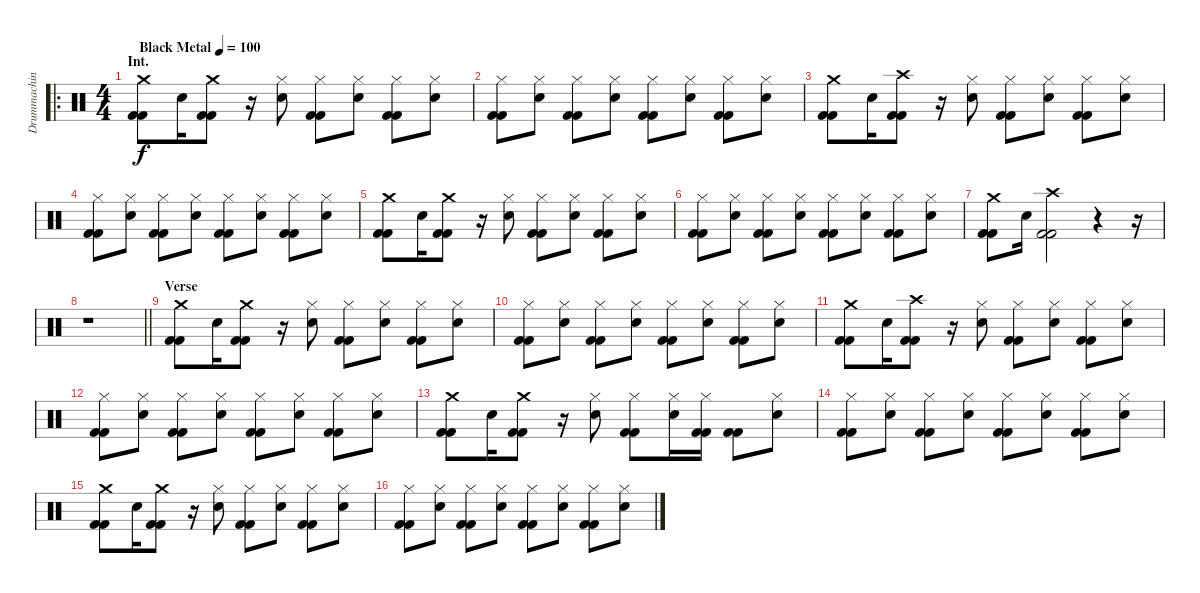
\track ("Drummachine" "Drummachin") {instrument percussion}
\staff {score}
\articulation defaults
\ro
\ts (4 4)
\section ("" "Int.")
\tempo (100 "Black Metal")
\clef neutral
\ks c
("Crash medium (hit)" "Kick (hit) 2" "Kick (hit) 2").8{dy f} "Snare (hit) 2".16 ("Crash medium (hit)" "Kick (hit) 2" "Kick (hit) 2").8 r.16 ("Hi-Hat (closed)" "Snare (hit) 2").8 ("Hi-Hat (closed)" "Kick (hit) 2" "Kick (hit) 2").8 ("Hi-Hat (closed)" "Snare (hit) 2").8 ("Hi-Hat (closed)" "Kick (hit) 2" "Kick (hit) 2").8 ("Hi-Hat (closed)" "Snare (hit) 2").8 |
("Hi-Hat (closed)" "Kick (hit) 2" "Kick (hit) 2").8 ("Hi-Hat (closed)" "Snare (hit) 2").8 ("Hi-Hat (closed)" "Kick (hit) 2" "Kick (hit) 2").8 ("Hi-Hat (closed)" "Snare (hit) 2").8 ("Hi-Hat (closed)" "Kick (hit) 2" "Kick (hit) 2").8 ("Hi-Hat (closed)" "Snare (hit) 2").8 ("Hi-Hat (closed)" "Kick (hit) 2" "Kick (hit) 2").8 ("Hi-Hat (closed)" "Snare (hit) 2").8 |
("Crash medium (hit)" "Kick (hit) 2" "Kick (hit) 2").8 "Snare (hit) 2".16 ("Crash high (hit)" "Kick (hit) 2" "Kick (hit) 2").8 r.16 ("Hi-Hat (closed)" "Snare (hit) 2").8 ("Hi-Hat (closed)" "Kick (hit) 2" "Kick (hit) 2").8 ("Hi-Hat (closed)" "Snare (hit) 2").8 ("Hi-Hat (closed)" "Kick (hit) 2" "Kick (hit) 2").8 ("Hi-Hat (closed)" "Snare (hit) 2").8 |
("Hi-Hat (closed)" "Kick (hit) 2" "Kick (hit) 2").8 ("Hi-Hat (closed)" "Snare (hit) 2").8 ("Hi-Hat (closed)" "Kick (hit) 2" "Kick (hit) 2").8 ("Hi-Hat (closed)" "Snare (hit) 2").8 ("Hi-Hat (closed)" "Kick (hit) 2" "Kick (hit) 2").8 ("Hi-Hat (closed)" "Snare (hit) 2").8 ("Hi-Hat (closed)" "Kick (hit) 2" "Kick (hit) 2").8 ("Hi-Hat (closed)" "Snare (hit) 2").8 |
("Crash medium (hit)" "Kick (hit) 2" "Kick (hit) 2").8 "Snare (hit) 2".16 ("Crash medium (hit)" "Kick (hit) 2" "Kick (hit) 2").8 r.16 ("Hi-Hat (closed)" "Snare (hit) 2").8 ("Hi-Hat (closed)" "Kick (hit) 2" "Kick (hit) 2").8 ("Hi-Hat (closed)" "Snare (hit) 2").8 ("Hi-Hat (closed)" "Kick (hit) 2" "Kick (hit) 2").8 ("Hi-Hat (closed)" "Snare (hit) 2").8 |
("Hi-Hat (closed)" "Kick (hit) 2" "Kick (hit) 2").8 ("Hi-Hat (closed)" "Snare (hit) 2").8 ("Hi-Hat (closed)" "Kick (hit) 2" "Kick (hit) 2").8 ("Hi-Hat (closed)" "Snare (hit) 2").8 ("Hi-Hat (closed)" "Kick (hit) 2" "Kick (hit) 2").8 ("Hi-Hat (closed)" "Snare (hit) 2").8 ("Hi-Hat (closed)" "Kick (hit) 2" "Kick (hit) 2").8 ("Hi-Hat (closed)" "Snare (hit) 2").8 |
("Crash medium (hit)" "Kick (hit) 2" "Kick (hit) 2").8 "Snare (hit) 2".16 ("Crash high (hit)" "Kick (hit) 2" "Kick (hit) 2").2 r.4 r.16 |
\barLineRight lightlight
r.1 |
\section ("" "Verse")
("Crash medium (hit)" "Kick (hit) 2" "Kick (hit) 2").8 "Snare (hit) 2".16 ("Crash medium (hit)" "Kick (hit) 2" "Kick (hit) 2").8 r.16 ("Hi-Hat (closed)" "Snare (hit) 2").8 ("Hi-Hat (closed)" "Kick (hit) 2" "Kick (hit) 2").8 ("Hi-Hat (closed)" "Snare (hit) 2").8 ("Hi-Hat (closed)" "Kick (hit) 2" "Kick (hit) 2").8 ("Hi-Hat (closed)" "Snare (hit) 2").8 |
("Hi-Hat (closed)" "Kick (hit) 2" "Kick (hit) 2").8 ("Hi-Hat (closed)" "Snare (hit) 2").8 ("Hi-Hat (closed)" "Kick (hit) 2" "Kick (hit) 2").8 ("Hi-Hat (closed)" "Snare (hit) 2").8 ("Hi-Hat (closed)" "Kick (hit) 2" "Kick (hit) 2").8 ("Hi-Hat (closed)" "Snare (hit) 2").8 ("Hi-Hat (closed)" "Kick (hit) 2" "Kick (hit) 2").8 ("Hi-Hat (closed)" "Snare (hit) 2").8 |
("Crash medium (hit)" "Kick (hit) 2" "Kick (hit) 2").8 "Snare (hit) 2".16 ("Crash high (hit)" "Kick (hit) 2" "Kick (hit) 2").8 r.16 ("Hi-Hat (closed)" "Snare (hit) 2").8 ("Hi-Hat (closed)" "Kick (hit) 2" "Kick (hit) 2").8 ("Hi-Hat (closed)" "Snare (hit) 2").8 ("Hi-Hat (closed)" "Kick (hit) 2" "Kick (hit) 2").8 ("Hi-Hat (closed)" "Snare (hit) 2").8 |
("Hi-Hat (closed)" "Kick (hit) 2" "Kick (hit) 2").8 ("Hi-Hat (closed)" "Snare (hit) 2").8 ("Hi-Hat (closed)" "Kick (hit) 2" "Kick (hit) 2").8 ("Hi-Hat (closed)" "Snare (hit) 2").8 ("Hi-Hat (closed)" "Kick (hit) 2" "Kick (hit) 2").8 ("Hi-Hat (closed)" "Snare (hit) 2").8 ("Hi-Hat (closed)" "Kick (hit) 2" "Kick (hit) 2").8 ("Hi-Hat (closed)" "Snare (hit) 2").8 |
("Crash medium (hit)" "Kick (hit) 2" "Kick (hit) 2").8 "Snare (hit) 2".16 ("Crash medium (hit)" "Kick (hit) 2" "Kick (hit) 2").8 r.16 ("Hi-Hat (closed)" "Snare (hit) 2").8 ("Hi-Hat (closed)" "Kick (hit) 2" "Kick (hit) 2").8 ("Hi-Hat (closed)" "Snare (hit) 2").16 ("Hi-Hat (closed)" "Kick (hit) 2" "Kick (hit) 2").16 ("Kick (hit) 2" "Kick (hit) 2").8 ("Hi-Hat (closed)" "Snare (hit) 2").8 |
("Hi-Hat (closed)" "Kick (hit) 2" "Kick (hit) 2").8 ("Hi-Hat (closed)" "Snare (hit) 2").8 ("Hi-Hat (closed)" "Kick (hit) 2" "Kick (hit) 2").8 ("Hi-Hat (closed)" "Snare (hit) 2").8 ("Hi-Hat (closed)" "Kick (hit) 2" "Kick (hit) 2").8 ("Hi-Hat (closed)" "Snare (hit) 2").8 ("Hi-Hat (closed)" "Kick (hit) 2" "Kick (hit) 2").8 ("Hi-Hat (closed)" "Snare (hit) 2").8 |
("Crash medium (hit)" "Kick (hit) 2" "Kick (hit) 2").8 "Snare (hit) 2".16 ("Crash medium (hit)" "Kick (hit) 2" "Kick (hit) 2").8 r.16 ("Hi-Hat (closed)" "Snare (hit) 2").8 ("Hi-Hat (closed)" "Kick (hit) 2" "Kick (hit) 2").8 ("Hi-Hat (closed)" "Snare (hit) 2").8 ("Hi-Hat (closed)" "Kick (hit) 2" "Kick (hit) 2").8 ("Hi-Hat (closed)" "Snare (hit) 2").8 |
("Hi-Hat (closed)" "Kick (hit) 2" "Kick (hit) 2").8 ("Hi-Hat (closed)" "Snare (hit) 2").8 ("Hi-Hat (closed)" "Kick (hit) 2" "Kick (hit) 2").8 ("Hi-Hat (closed)" "Snare (hit) 2").8 ("Hi-Hat (closed)" "Kick (hit) 2" "Kick (hit) 2").8 ("Hi-Hat (closed)" "Snare (hit) 2").8 ("Hi-Hat (closed)" "Kick (hit) 2" "Kick (hit) 2").8 ("Hi-Hat (closed)" "Snare (hit) 2").8
